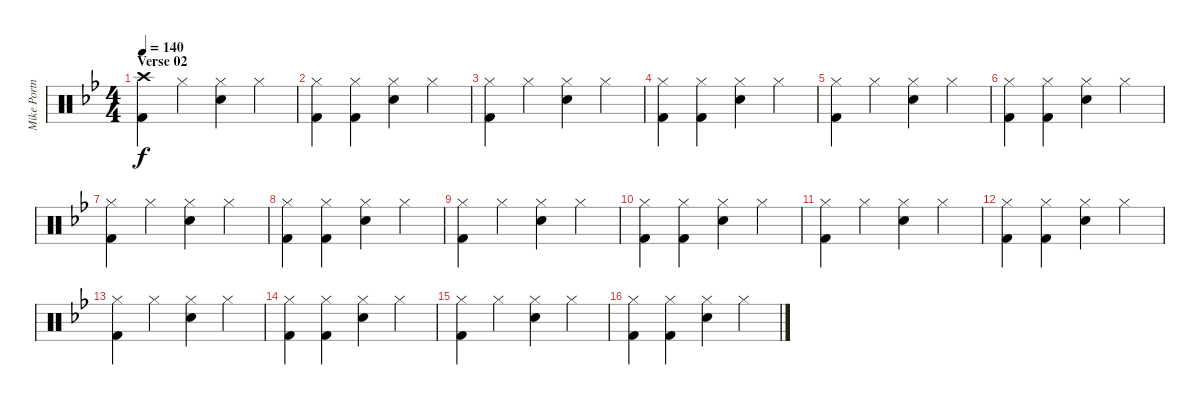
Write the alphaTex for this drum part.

\track ("Mike Portnoy" "Mike Portn") {instrument percussion}
\staff {score}
\articulation defaults
\ts (4 4)
\section ("" "Verse 02")
\tempo 140
\clef neutral
\ks bb
("Crash high (hit)" "Kick (hit) 2").4{dy f} "Hi-Hat (closed)".4 ("Hi-Hat (closed)" "Electric Snare (hit)").4 "Hi-Hat (closed)".4 |
("Hi-Hat (closed)" "Kick (hit) 2").4 ("Hi-Hat (closed)" "Kick (hit) 2").4 ("Hi-Hat (closed)" "Electric Snare (hit)").4 "Hi-Hat (closed)".4 |
("Hi-Hat (closed)" "Kick (hit) 2").4 "Hi-Hat (closed)".4 ("Hi-Hat (closed)" "Electric Snare (hit)").4 "Hi-Hat (closed)".4 |
("Hi-Hat (closed)" "Kick (hit) 2").4 ("Hi-Hat (closed)" "Kick (hit) 2").4 ("Hi-Hat (closed)" "Electric Snare (hit)").4 "Hi-Hat (closed)".4 |
("Hi-Hat (closed)" "Kick (hit) 2").4 "Hi-Hat (closed)".4 ("Hi-Hat (closed)" "Electric Snare (hit)").4 "Hi-Hat (closed)".4 |
("Hi-Hat (closed)" "Kick (hit) 2").4 ("Hi-Hat (closed)" "Kick (hit) 2").4 ("Hi-Hat (closed)" "Electric Snare (hit)").4 "Hi-Hat (closed)".4 |
("Hi-Hat (closed)" "Kick (hit) 2").4 "Hi-Hat (closed)".4 ("Hi-Hat (closed)" "Electric Snare (hit)").4 "Hi-Hat (closed)".4 |
("Hi-Hat (closed)" "Kick (hit) 2").4 ("Hi-Hat (closed)" "Kick (hit) 2").4 ("Hi-Hat (closed)" "Electric Snare (hit)").4 "Hi-Hat (closed)".4 |
("Hi-Hat (closed)" "Kick (hit) 2").4 "Hi-Hat (closed)".4 ("Hi-Hat (closed)" "Electric Snare (hit)").4 "Hi-Hat (closed)".4 |
("Hi-Hat (closed)" "Kick (hit) 2").4 ("Hi-Hat (closed)" "Kick (hit) 2").4 ("Hi-Hat (closed)" "Electric Snare (hit)").4 "Hi-Hat (closed)".4 |
("Hi-Hat (closed)" "Kick (hit) 2").4 "Hi-Hat (closed)".4 ("Hi-Hat (closed)" "Electric Snare (hit)").4 "Hi-Hat (closed)".4 |
("Hi-Hat (closed)" "Kick (hit) 2").4 ("Hi-Hat (closed)" "Kick (hit) 2").4 ("Hi-Hat (closed)" "Electric Snare (hit)").4 "Hi-Hat (closed)".4 |
("Hi-Hat (closed)" "Kick (hit) 2").4 "Hi-Hat (closed)".4 ("Hi-Hat (closed)" "Electric Snare (hit)").4 "Hi-Hat (closed)".4 |
("Hi-Hat (closed)" "Kick (hit) 2").4 ("Hi-Hat (closed)" "Kick (hit) 2").4 ("Hi-Hat (closed)" "Electric Snare (hit)").4 "Hi-Hat (closed)".4 |
("Hi-Hat (closed)" "Kick (hit) 2").4 "Hi-Hat (closed)".4 ("Hi-Hat (closed)" "Electric Snare (hit)").4 "Hi-Hat (closed)".4 |
("Hi-Hat (closed)" "Kick (hit) 2").4 ("Hi-Hat (closed)" "Kick (hit) 2").4 ("Hi-Hat (closed)" "Electric Snare (hit)").4 "Hi-Hat (closed)".4
